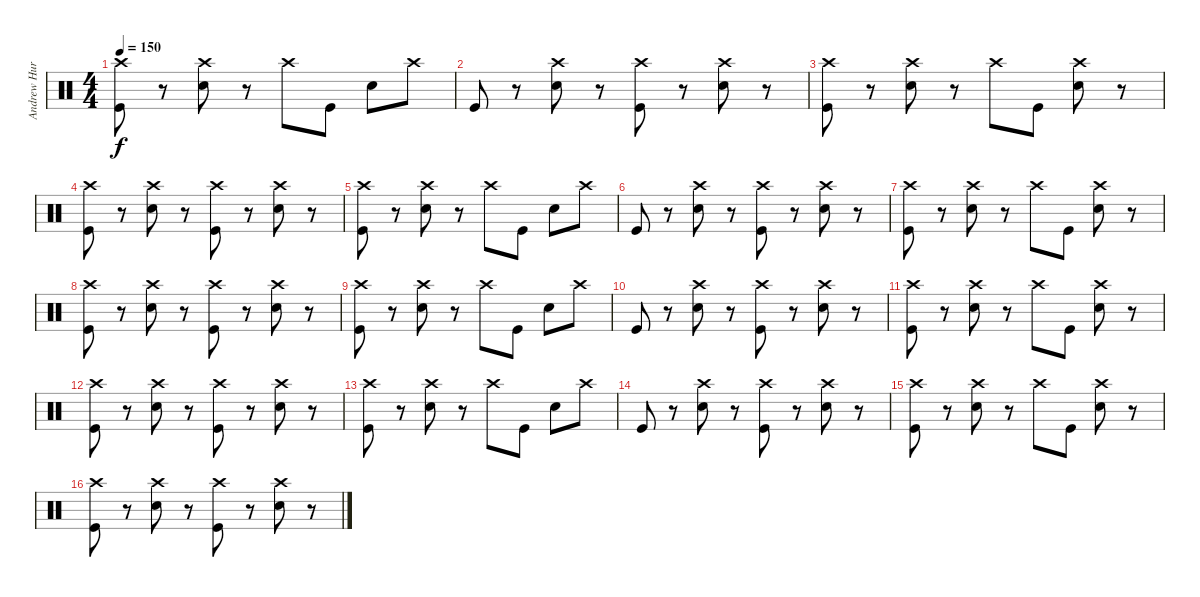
\track ("Andrew Hurley (Drums)" "Andrew Hur") {instrument percussion}
\staff {score}
\articulation defaults
\ts (4 4)
\tempo 150
\clef neutral
\ks c
("Crash high (hit)" "Kick (hit)").8{dy f} r.8 ("Crash high (hit)" "Snare (hit) 2").8 r.8 "Crash high (hit)".8 "Kick (hit)".8 "Snare (hit) 2".8 "Crash high (hit)".8 |
"Kick (hit)".8 r.8 ("Crash high (hit)" "Snare (hit) 2").8 r.8 ("Crash high (hit)" "Kick (hit)").8 r.8 ("Crash high (hit)" "Snare (hit) 2").8 r.8 |
("Crash high (hit)" "Kick (hit)").8 r.8 ("Crash high (hit)" "Snare (hit) 2").8 r.8 "Crash high (hit)".8 "Kick (hit)".8 ("Crash high (hit)" "Snare (hit) 2").8 r.8 |
("Crash high (hit)" "Kick (hit)").8 r.8 ("Crash high (hit)" "Snare (hit) 2").8 r.8 ("Crash high (hit)" "Kick (hit)").8 r.8 ("Crash high (hit)" "Snare (hit) 2").8 r.8 |
("Crash high (hit)" "Kick (hit)").8 r.8 ("Crash high (hit)" "Snare (hit) 2").8 r.8 "Crash high (hit)".8 "Kick (hit)".8 "Snare (hit) 2".8 "Crash high (hit)".8 |
"Kick (hit)".8 r.8 ("Crash high (hit)" "Snare (hit) 2").8 r.8 ("Crash high (hit)" "Kick (hit)").8 r.8 ("Crash high (hit)" "Snare (hit) 2").8 r.8 |
("Crash high (hit)" "Kick (hit)").8 r.8 ("Crash high (hit)" "Snare (hit) 2").8 r.8 "Crash high (hit)".8 "Kick (hit)".8 ("Crash high (hit)" "Snare (hit) 2").8 r.8 |
("Crash high (hit)" "Kick (hit)").8 r.8 ("Crash high (hit)" "Snare (hit) 2").8 r.8 ("Crash high (hit)" "Kick (hit)").8 r.8 ("Crash high (hit)" "Snare (hit) 2").8 r.8 |
("Crash high (hit)" "Kick (hit)").8 r.8 ("Crash high (hit)" "Snare (hit) 2").8 r.8 "Crash high (hit)".8 "Kick (hit)".8 "Snare (hit) 2".8 "Crash high (hit)".8 |
"Kick (hit)".8 r.8 ("Crash high (hit)" "Snare (hit) 2").8 r.8 ("Crash high (hit)" "Kick (hit)").8 r.8 ("Crash high (hit)" "Snare (hit) 2").8 r.8 |
("Crash high (hit)" "Kick (hit)").8 r.8 ("Crash high (hit)" "Snare (hit) 2").8 r.8 "Crash high (hit)".8 "Kick (hit)".8 ("Crash high (hit)" "Snare (hit) 2").8 r.8 |
("Crash high (hit)" "Kick (hit)").8 r.8 ("Crash high (hit)" "Snare (hit) 2").8 r.8 ("Crash high (hit)" "Kick (hit)").8 r.8 ("Crash high (hit)" "Snare (hit) 2").8 r.8 |
("Crash high (hit)" "Kick (hit)").8 r.8 ("Crash high (hit)" "Snare (hit) 2").8 r.8 "Crash high (hit)".8 "Kick (hit)".8 "Snare (hit) 2".8 "Crash high (hit)".8 |
"Kick (hit)".8 r.8 ("Crash high (hit)" "Snare (hit) 2").8 r.8 ("Crash high (hit)" "Kick (hit)").8 r.8 ("Crash high (hit)" "Snare (hit) 2").8 r.8 |
("Crash high (hit)" "Kick (hit)").8 r.8 ("Crash high (hit)" "Snare (hit) 2").8 r.8 "Crash high (hit)".8 "Kick (hit)".8 ("Crash high (hit)" "Snare (hit) 2").8 r.8 |
("Crash high (hit)" "Kick (hit)").8 r.8 ("Crash high (hit)" "Snare (hit) 2").8 r.8 ("Crash high (hit)" "Kick (hit)").8 r.8 ("Crash high (hit)" "Snare (hit) 2").8 r.8
